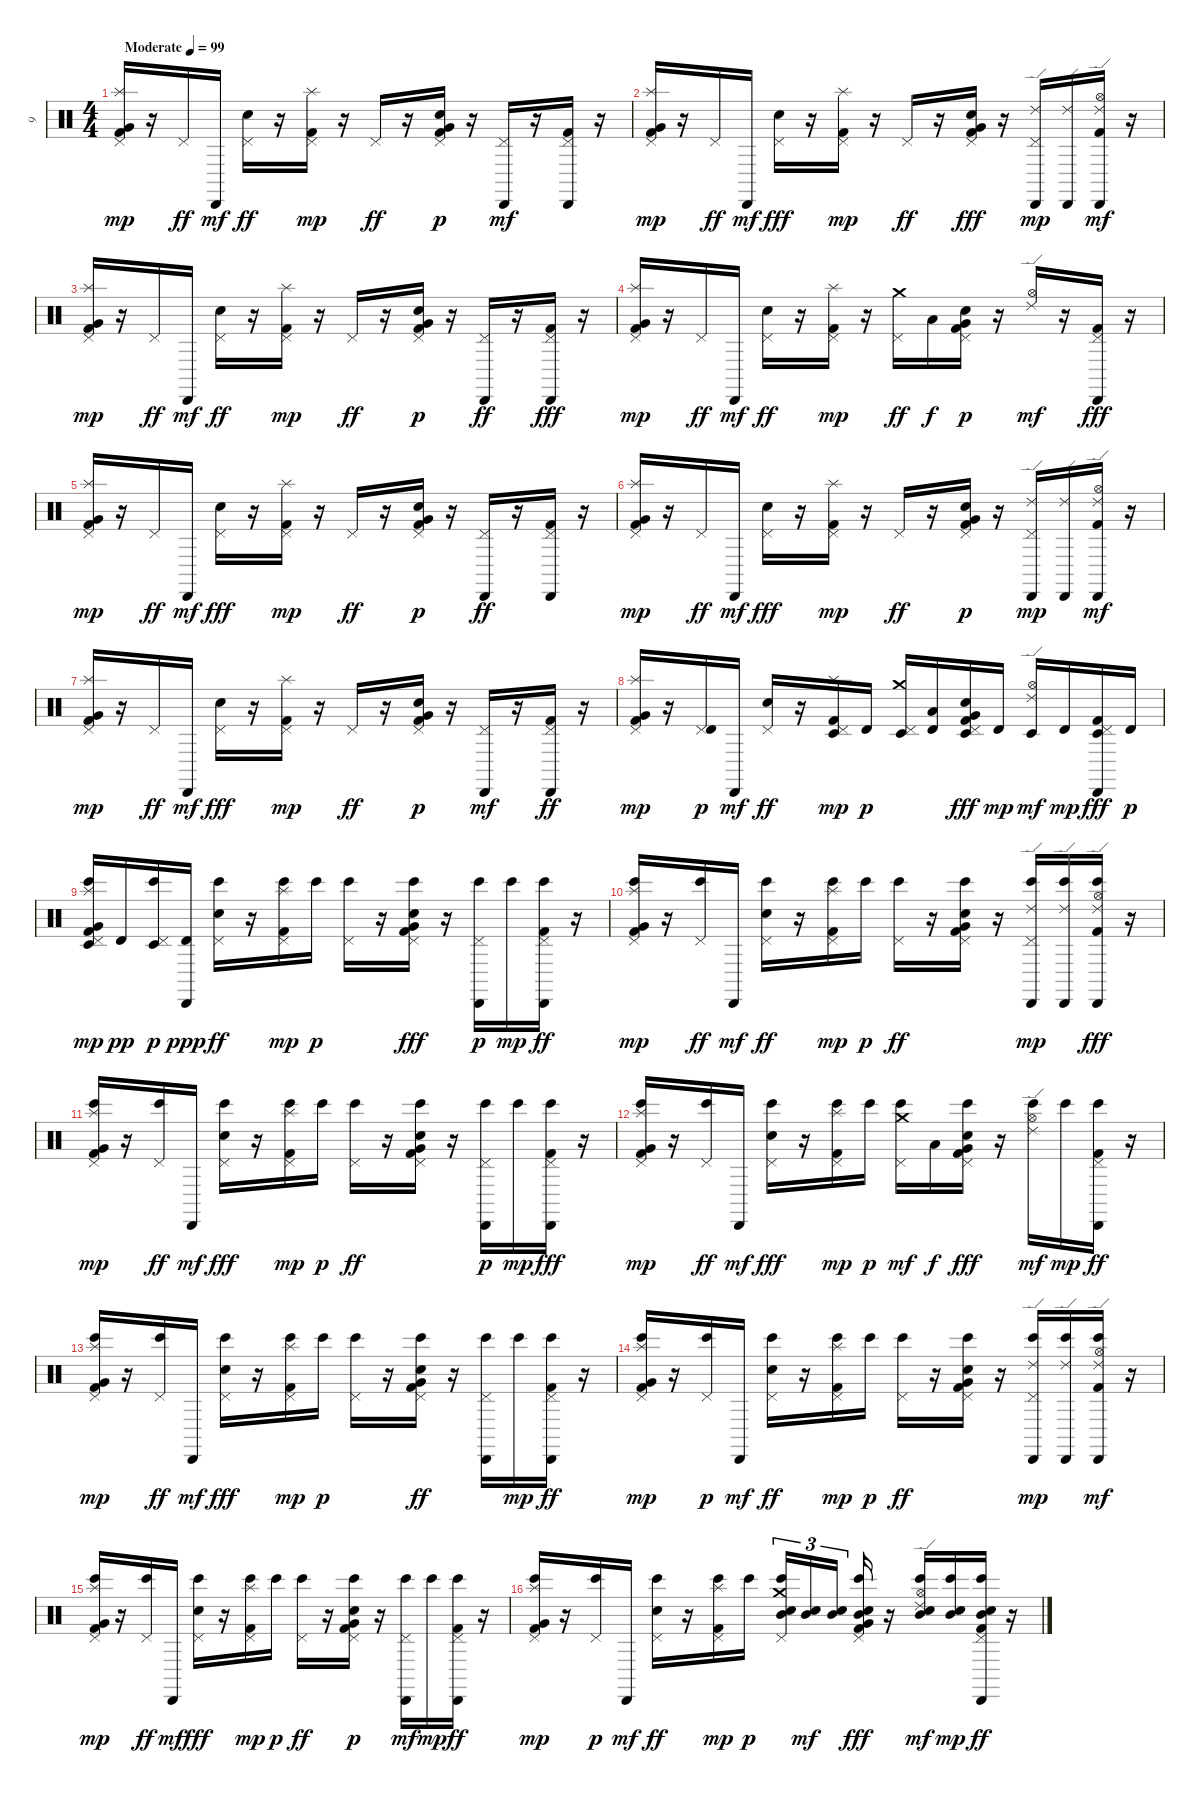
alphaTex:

\track ("9" "9") {instrument percussion}
\staff {score}
\articulation defaults
\ts (4 4)
\tempo (99 "Moderate")
\clef neutral
\ks c
("Pedal Hi-Hat (hit)" "Kick (hit) 2" "Very Low Tom (hit)" "Splash (hit)").16{dy mp} r.16 "Pedal Hi-Hat (hit)".16{dy ff} "Cabasa (hit)".16{dy mf} ("Electric Snare (hit)" "Pedal Hi-Hat (hit)").16{dy ff} r.16 ("Kick (hit) 2" "Pedal Hi-Hat (hit)" "Splash (hit)").16{dy mp} r.16 "Pedal Hi-Hat (hit)".16{dy ff} r.16 ("Pedal Hi-Hat (hit)" "Electric Snare (hit)" "Kick (hit) 2" "Very Low Tom (hit)").16{dy p} r.16 ("Pedal Hi-Hat (hit)" "Cabasa (hit)").16{dy mf} r.16 ("Pedal Hi-Hat (hit)" "Kick (hit) 2" "Cabasa (hit)").16 r.16 |
("Pedal Hi-Hat (hit)" "Very Low Tom (hit)" "Kick (hit) 2" "Splash (hit)").16{dy mp} r.16 "Pedal Hi-Hat (hit)".16{dy ff} "Cabasa (hit)".16{dy mf} ("Pedal Hi-Hat (hit)" "Electric Snare (hit)").16{dy fff} r.16 ("Kick (hit) 2" "Pedal Hi-Hat (hit)" "Splash (hit)").16{dy mp} r.16 "Pedal Hi-Hat (hit)".16{dy ff} r.16 ("Electric Snare (hit)" "Pedal Hi-Hat (hit)" "Very Low Tom (hit)" "Kick (hit) 2").16{dy fff} r.16 ("Cabasa (hit)" "Pedal Hi-Hat (hit)" "Ride (edge) 2").16{dy mp} ("Ride (edge) 2" "Cabasa (hit)").16 ("Kick (hit) 2" "Ride (edge) 2" "Cabasa (hit)" "Hi-Hat (open)").16{dy mf} r.16 |
("Very Low Tom (hit)" "Kick (hit) 2" "Pedal Hi-Hat (hit)" "Splash (hit)").16{dy mp} r.16 "Pedal Hi-Hat (hit)".16{dy ff} "Cabasa (hit)".16{dy mf} ("Electric Snare (hit)" "Pedal Hi-Hat (hit)").16{dy ff} r.16 ("Pedal Hi-Hat (hit)" "Kick (hit) 2" "Splash (hit)").16{dy mp} r.16 "Pedal Hi-Hat (hit)".16{dy ff} r.16 ("Electric Snare (hit)" "Kick (hit) 2" "Pedal Hi-Hat (hit)" "Very Low Tom (hit)").16{dy p} r.16 ("Cabasa (hit)" "Pedal Hi-Hat (hit)").16{dy ff} r.16 ("Pedal Hi-Hat (hit)" "Cabasa (hit)" "Kick (hit) 2").16{dy fff} r.16 |
("Pedal Hi-Hat (hit)" "Very Low Tom (hit)" "Kick (hit) 2" "Splash (hit)").16{dy mp} r.16 "Pedal Hi-Hat (hit)".16{dy ff} "Cabasa (hit)".16{dy mf} ("Electric Snare (hit)" "Pedal Hi-Hat (hit)").16{dy ff} r.16 ("Pedal Hi-Hat (hit)" "Kick (hit) 2" "Splash (hit)").16{dy mp} r.16 ("Crash medium (hit)" "Pedal Hi-Hat (hit)").16{dy ff} "Low Tom (hit)".16{dy f} ("Pedal Hi-Hat (hit)" "Electric Snare (hit)" "Kick (hit) 2" "Very Low Tom (hit)").16{dy p} r.16 ("Hi-Hat (open)" "Ride (edge) 2").16{dy mf} r.16 ("Pedal Hi-Hat (hit)" "Cabasa (hit)" "Kick (hit) 2").16{dy fff} r.16 |
("Pedal Hi-Hat (hit)" "Kick (hit) 2" "Very Low Tom (hit)" "Splash (hit)").16{dy mp} r.16 "Pedal Hi-Hat (hit)".16{dy ff} "Cabasa (hit)".16{dy mf} ("Pedal Hi-Hat (hit)" "Electric Snare (hit)").16{dy fff} r.16 ("Kick (hit) 2" "Pedal Hi-Hat (hit)" "Splash (hit)").16{dy mp} r.16 "Pedal Hi-Hat (hit)".16{dy ff} r.16 ("Pedal Hi-Hat (hit)" "Electric Snare (hit)" "Kick (hit) 2" "Very Low Tom (hit)").16{dy p} r.16 ("Cabasa (hit)" "Pedal Hi-Hat (hit)").16{dy ff} r.16 ("Kick (hit) 2" "Cabasa (hit)" "Pedal Hi-Hat (hit)").16 r.16 |
("Pedal Hi-Hat (hit)" "Kick (hit) 2" "Very Low Tom (hit)" "Splash (hit)").16{dy mp} r.16 "Pedal Hi-Hat (hit)".16{dy ff} "Cabasa (hit)".16{dy mf} ("Pedal Hi-Hat (hit)" "Electric Snare (hit)").16{dy fff} r.16 ("Pedal Hi-Hat (hit)" "Kick (hit) 2" "Splash (hit)").16{dy mp} r.16 "Pedal Hi-Hat (hit)".16{dy ff} r.16 ("Pedal Hi-Hat (hit)" "Kick (hit) 2" "Electric Snare (hit)" "Very Low Tom (hit)").16{dy p} r.16 ("Cabasa (hit)" "Pedal Hi-Hat (hit)" "Ride (edge) 2").16{dy mp} ("Ride (edge) 2" "Cabasa (hit)").16 ("Kick (hit) 2" "Cabasa (hit)" "Hi-Hat (open)" "Ride (edge) 2").16{dy mf} r.16 |
("Kick (hit) 2" "Pedal Hi-Hat (hit)" "Very Low Tom (hit)" "Splash (hit)").16{dy mp} r.16 "Pedal Hi-Hat (hit)".16{dy ff} "Cabasa (hit)".16{dy mf} ("Pedal Hi-Hat (hit)" "Electric Snare (hit)").16{dy fff} r.16 ("Pedal Hi-Hat (hit)" "Kick (hit) 2" "Splash (hit)").16{dy mp} r.16 "Pedal Hi-Hat (hit)".16{dy ff} r.16 ("Electric Snare (hit)" "Pedal Hi-Hat (hit)" "Kick (hit) 2" "Very Low Tom (hit)").16{dy p} r.16 ("Pedal Hi-Hat (hit)" "Cabasa (hit)").16{dy mf} r.16 ("Kick (hit) 2" "Cabasa (hit)" "Pedal Hi-Hat (hit)").16{dy ff} r.16 |
("Kick (hit) 2" "Very Low Tom (hit)" "Pedal Hi-Hat (hit)" "Splash (hit)").16{dy mp} r.16 ("Pedal Hi-Hat (hit)" "Timbale high (hit)").16{dy p} "Cabasa (hit)".16{dy mf} ("Electric Snare (hit)" "Pedal Hi-Hat (hit)").16{dy ff} r.16 ("Pedal Hi-Hat (hit)" "Timbale low (hit)" "Kick (hit) 2" "Splash (hit)").16{dy mp} "Timbale high (hit)".16{dy p} ("Crash medium (hit)" "Pedal Hi-Hat (hit)" "Timbale low (hit)").16 ("Timbale high (hit)" "Low Tom (hit)").16 ("Kick (hit) 2" "Very Low Tom (hit)" "Timbale low (hit)" "Pedal Hi-Hat (hit)" "Electric Snare (hit)").16{dy fff} "Timbale high (hit)".16{dy mp} ("Hi-Hat (open)" "Timbale low (hit)" "Ride (edge) 2").16{dy mf} "Timbale high (hit)".16{dy mp} ("Cabasa (hit)" "Pedal Hi-Hat (hit)" "Timbale low (hit)" "Kick (hit) 2").16{dy fff} "Timbale high (hit)".16{dy p} |
("Timbale low (hit)" "Bongo High (hit)" "Pedal Hi-Hat (hit)" "Very Low Tom (hit)" "Kick (hit) 2" "Splash (hit)").16{dy mp} "Timbale high (hit)".16{dy pp} ("Pedal Hi-Hat (hit)" "Timbale low (hit)" "Bongo High (hit)").16{dy p} ("Cabasa (hit)" "Timbale high (hit)").16{dy ppp} ("Bongo High (hit)" "Electric Snare (hit)" "Pedal Hi-Hat (hit)").16{dy ff} r.16 ("Bongo High (hit)" "Pedal Hi-Hat (hit)" "Kick (hit) 2" "Splash (hit)").16{dy mp} "Bongo High (hit)".16{dy p} ("Pedal Hi-Hat (hit)" "Bongo High (hit)").16 r.16 ("Bongo High (hit)" "Pedal Hi-Hat (hit)" "Very Low Tom (hit)" "Kick (hit) 2" "Electric Snare (hit)").16{dy fff} r.16 ("Pedal Hi-Hat (hit)" "Cabasa (hit)" "Bongo High (hit)").16{dy p} "Bongo High (hit)".16{dy mp} ("Bongo High (hit)" "Kick (hit) 2" "Cabasa (hit)" "Pedal Hi-Hat (hit)").16{dy ff} r.16 |
("Bongo High (hit)" "Kick (hit) 2" "Pedal Hi-Hat (hit)" "Very Low Tom (hit)" "Splash (hit)").16{dy mp} r.16 ("Bongo High (hit)" "Pedal Hi-Hat (hit)").16{dy ff} "Cabasa (hit)".16{dy mf} ("Bongo High (hit)" "Electric Snare (hit)" "Pedal Hi-Hat (hit)").16{dy ff} r.16 ("Kick (hit) 2" "Pedal Hi-Hat (hit)" "Bongo High (hit)" "Splash (hit)").16{dy mp} "Bongo High (hit)".16{dy p} ("Bongo High (hit)" "Pedal Hi-Hat (hit)").16{dy ff} r.16 ("Kick (hit) 2" "Very Low Tom (hit)" "Electric Snare (hit)" "Pedal Hi-Hat (hit)" "Bongo High (hit)").16 r.16 ("Pedal Hi-Hat (hit)" "Bongo High (hit)" "Cabasa (hit)" "Ride (edge) 2").16{dy mp} ("Cabasa (hit)" "Bongo High (hit)" "Ride (edge) 2").16 ("Bongo High (hit)" "Cabasa (hit)" "Hi-Hat (open)" "Ride (edge) 2" "Kick (hit) 2").16{dy fff} r.16 |
("Pedal Hi-Hat (hit)" "Bongo High (hit)" "Kick (hit) 2" "Very Low Tom (hit)" "Splash (hit)").16{dy mp} r.16 ("Bongo High (hit)" "Pedal Hi-Hat (hit)").16{dy ff} "Cabasa (hit)".16{dy mf} ("Pedal Hi-Hat (hit)" "Bongo High (hit)" "Electric Snare (hit)").16{dy fff} r.16 ("Bongo High (hit)" "Kick (hit) 2" "Pedal Hi-Hat (hit)" "Splash (hit)").16{dy mp} "Bongo High (hit)".16{dy p} ("Bongo High (hit)" "Pedal Hi-Hat (hit)").16{dy ff} r.16 ("Kick (hit) 2" "Electric Snare (hit)" "Bongo High (hit)" "Very Low Tom (hit)" "Pedal Hi-Hat (hit)").16 r.16 ("Cabasa (hit)" "Pedal Hi-Hat (hit)" "Bongo High (hit)").16{dy p} "Bongo High (hit)".16{dy mp} ("Cabasa (hit)" "Pedal Hi-Hat (hit)" "Bongo High (hit)" "Kick (hit) 2").16{dy fff} r.16 |
("Bongo High (hit)" "Very Low Tom (hit)" "Kick (hit) 2" "Pedal Hi-Hat (hit)" "Splash (hit)").16{dy mp} r.16 ("Bongo High (hit)" "Pedal Hi-Hat (hit)").16{dy ff} "Cabasa (hit)".16{dy mf} ("Pedal Hi-Hat (hit)" "Bongo High (hit)" "Electric Snare (hit)").16{dy fff} r.16 ("Pedal Hi-Hat (hit)" "Bongo High (hit)" "Kick (hit) 2" "Splash (hit)").16{dy mp} "Bongo High (hit)".16{dy p} ("Pedal Hi-Hat (hit)" "Bongo High (hit)" "Crash medium (hit)").16{dy mf} "Low Tom (hit)".16{dy f} ("Pedal Hi-Hat (hit)" "Bongo High (hit)" "Very Low Tom (hit)" "Kick (hit) 2" "Electric Snare (hit)").16{dy fff} r.16 ("Bongo High (hit)" "Hi-Hat (open)" "Ride (edge) 2").16{dy mf} "Bongo High (hit)".16{dy mp} ("Cabasa (hit)" "Kick (hit) 2" "Pedal Hi-Hat (hit)" "Bongo High (hit)").16{dy ff} r.16 |
("Very Low Tom (hit)" "Pedal Hi-Hat (hit)" "Kick (hit) 2" "Bongo High (hit)" "Splash (hit)").16{dy mp} r.16 ("Bongo High (hit)" "Pedal Hi-Hat (hit)").16{dy ff} "Cabasa (hit)".16{dy mf} ("Pedal Hi-Hat (hit)" "Bongo High (hit)" "Electric Snare (hit)").16{dy fff} r.16 ("Kick (hit) 2" "Pedal Hi-Hat (hit)" "Bongo High (hit)" "Splash (hit)").16{dy mp} "Bongo High (hit)".16{dy p} ("Pedal Hi-Hat (hit)" "Bongo High (hit)").16 r.16 ("Kick (hit) 2" "Electric Snare (hit)" "Very Low Tom (hit)" "Pedal Hi-Hat (hit)" "Bongo High (hit)").16{dy ff} r.16 ("Bongo High (hit)" "Cabasa (hit)" "Pedal Hi-Hat (hit)").16 "Bongo High (hit)".16{dy mp} ("Kick (hit) 2" "Bongo High (hit)" "Cabasa (hit)" "Pedal Hi-Hat (hit)").16{dy ff} r.16 |
("Bongo High (hit)" "Pedal Hi-Hat (hit)" "Kick (hit) 2" "Very Low Tom (hit)" "Splash (hit)").16{dy mp} r.16 ("Pedal Hi-Hat (hit)" "Bongo High (hit)").16{dy p} "Cabasa (hit)".16{dy mf} ("Electric Snare (hit)" "Pedal Hi-Hat (hit)" "Bongo High (hit)").16{dy ff} r.16 ("Bongo High (hit)" "Pedal Hi-Hat (hit)" "Kick (hit) 2" "Splash (hit)").16{dy mp} "Bongo High (hit)".16{dy p} ("Bongo High (hit)" "Pedal Hi-Hat (hit)").16{dy ff} r.16 ("Very Low Tom (hit)" "Electric Snare (hit)" "Bongo High (hit)" "Kick (hit) 2" "Pedal Hi-Hat (hit)").16 r.16 ("Bongo High (hit)" "Ride (edge) 2" "Pedal Hi-Hat (hit)" "Cabasa (hit)").16{dy mp} ("Cabasa (hit)" "Ride (edge) 2" "Bongo High (hit)").16 ("Bongo High (hit)" "Cabasa (hit)" "Ride (edge) 2" "Kick (hit) 2" "Hi-Hat (open)").16{dy mf} r.16 |
("Kick (hit) 2" "Pedal Hi-Hat (hit)" "Bongo High (hit)" "Very Low Tom (hit)" "Splash (hit)").16{dy mp} r.16 ("Bongo High (hit)" "Pedal Hi-Hat (hit)").16{dy ff} "Cabasa (hit)".16{dy mf} ("Pedal Hi-Hat (hit)" "Bongo High (hit)" "Electric Snare (hit)").16{dy fff} r.16 ("Kick (hit) 2" "Bongo High (hit)" "Pedal Hi-Hat (hit)" "Splash (hit)").16{dy mp} "Bongo High (hit)".16{dy p} ("Bongo High (hit)" "Pedal Hi-Hat (hit)").16{dy ff} r.16 ("Kick (hit) 2" "Pedal Hi-Hat (hit)" "Bongo High (hit)" "Electric Snare (hit)" "Very Low Tom (hit)").16{dy p} r.16 ("Pedal Hi-Hat (hit)" "Bongo High (hit)" "Cabasa (hit)").16{dy mf} "Bongo High (hit)".16{dy mp} ("Bongo High (hit)" "Kick (hit) 2" "Cabasa (hit)" "Pedal Hi-Hat (hit)").16{dy ff} r.16 |
("Pedal Hi-Hat (hit)" "Very Low Tom (hit)" "Bongo High (hit)" "Kick (hit) 2" "Splash (hit)").16{dy mp} r.16 ("Pedal Hi-Hat (hit)" "Bongo High (hit)").16{dy p} "Cabasa (hit)".16{dy mf} ("Electric Snare (hit)" "Pedal Hi-Hat (hit)" "Bongo High (hit)").16{dy ff} r.16 ("Bongo High (hit)" "Pedal Hi-Hat (hit)" "Kick (hit) 2" "Splash (hit)").16{dy mp} "Bongo High (hit)".16{dy p} ("Electric Snare (hit)" "Pedal Hi-Hat (hit)" "Mid Tom (hit)" "Crash medium (hit)" "Bongo High (hit)").16{tu (3 2)} ("Mid Tom (hit)" "Electric Snare (hit)").16{tu (3 2) dy mf} ("Mid Tom (hit)" "Electric Snare (hit)").16{tu (3 2) beam splitsecondary} ("Bongo High (hit)" "Pedal Hi-Hat (hit)" "Very Low Tom (hit)" "Mid Tom (hit)" "Electric Snare (hit)" "Kick (hit) 2").16{dy fff} r.16 ("Bongo High (hit)" "Hi-Hat (open)" "Electric Snare (hit)" "Mid Tom (hit)" "Ride (edge) 2").16{dy mf} ("Electric Snare (hit)" "Mid Tom (hit)" "Bongo High (hit)").16{dy mp} ("Cabasa (hit)" "Kick (hit) 2" "Electric Snare (hit)" "Pedal Hi-Hat (hit)" "Bongo High (hit)" "Mid Tom (hit)").16{dy ff} r.16
